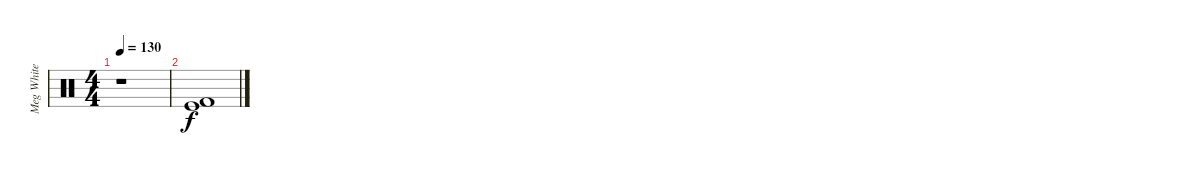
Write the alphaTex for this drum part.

\track ("Meg White (Drums)" "Meg White ") {instrument percussion}
\staff {score}
\articulation defaults
\ts (4 4)
\tempo 130
\clef neutral
\ks c
r.1{dy f} |
("Kick (hit)" "Kick (hit) 2").1
